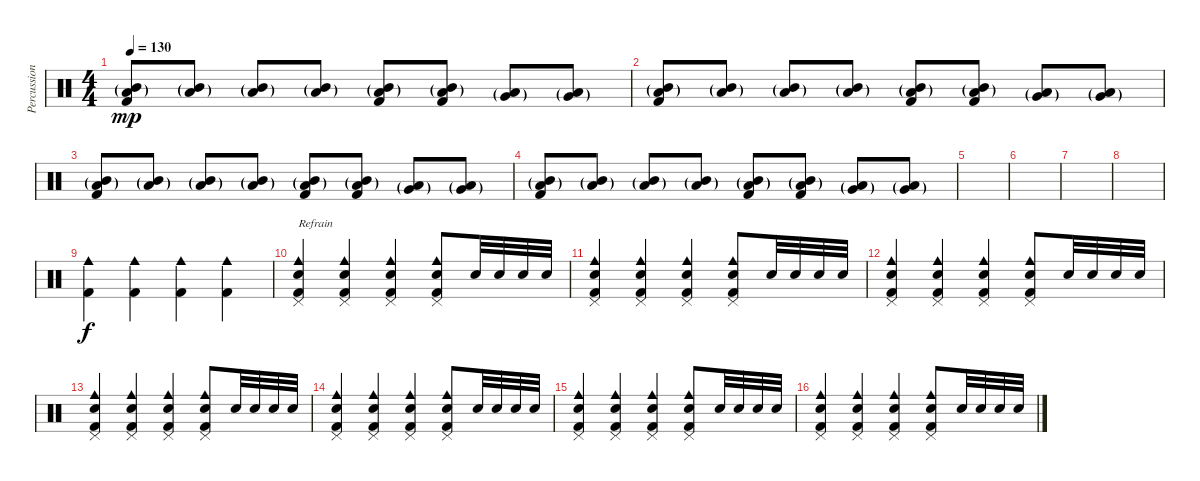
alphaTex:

\track ("Percussion" "Percussion") {instrument percussion}
\staff {score}
\articulation defaults
\ts (4 4)
\tempo 130
\clef neutral
\ks c
("Mid Tom (hit)"{g} "Low Tom (hit)"{g} "Kick (hit) 2").8{dy mp} ("Mid Tom (hit)"{g} "Low Tom (hit)"{g}).8 ("Mid Tom (hit)"{g} "Low Tom (hit)"{g}).8 ("Mid Tom (hit)"{g} "Low Tom (hit)"{g}).8 ("Mid Tom (hit)"{g} "Low Tom (hit)"{g} "Kick (hit) 2").8 ("Mid Tom (hit)"{g} "Low Tom (hit)"{g} "Kick (hit) 2").8 ("Very Low Tom (hit)"{g} "Low Tom (hit)"{g}).8 ("Very Low Tom (hit)"{g} "Low Tom (hit)"{g}).8 |
("Mid Tom (hit)"{g} "Low Tom (hit)"{g} "Kick (hit) 2").8 ("Mid Tom (hit)"{g} "Low Tom (hit)"{g}).8 ("Mid Tom (hit)"{g} "Low Tom (hit)"{g}).8 ("Mid Tom (hit)"{g} "Low Tom (hit)"{g}).8 ("Mid Tom (hit)"{g} "Low Tom (hit)"{g} "Kick (hit) 2").8 ("Mid Tom (hit)"{g} "Low Tom (hit)"{g} "Kick (hit) 2").8 ("Very Low Tom (hit)"{g} "Low Tom (hit)"{g}).8 ("Very Low Tom (hit)"{g} "Low Tom (hit)"{g}).8 |
("Mid Tom (hit)"{g} "Low Tom (hit)"{g} "Kick (hit) 2").8 ("Mid Tom (hit)"{g} "Low Tom (hit)"{g}).8 ("Mid Tom (hit)"{g} "Low Tom (hit)"{g}).8 ("Mid Tom (hit)"{g} "Low Tom (hit)"{g}).8 ("Mid Tom (hit)"{g} "Low Tom (hit)"{g} "Kick (hit) 2").8 ("Mid Tom (hit)"{g} "Low Tom (hit)"{g} "Kick (hit) 2").8 ("Very Low Tom (hit)"{g} "Low Tom (hit)"{g}).8 ("Very Low Tom (hit)"{g} "Low Tom (hit)"{g}).8 |
("Mid Tom (hit)"{g} "Low Tom (hit)"{g} "Kick (hit) 2").8 ("Mid Tom (hit)"{g} "Low Tom (hit)"{g}).8 ("Mid Tom (hit)"{g} "Low Tom (hit)"{g}).8 ("Mid Tom (hit)"{g} "Low Tom (hit)"{g}).8 ("Mid Tom (hit)"{g} "Low Tom (hit)"{g} "Kick (hit) 2").8 ("Mid Tom (hit)"{g} "Low Tom (hit)"{g} "Kick (hit) 2").8 ("Very Low Tom (hit)"{g} "Low Tom (hit)"{g}).8 ("Very Low Tom (hit)"{g} "Low Tom (hit)"{g}).8 |
|
|
|
|
("Cowbell medium (hit)" "Kick (hit) 2").4{dy f} ("Cowbell medium (hit)" "Kick (hit) 2").4 ("Cowbell medium (hit)" "Kick (hit) 2").4 ("Cowbell medium (hit)" "Kick (hit) 2").4 |
("Pedal Hi-Hat (hit)" "Cowbell medium (hit)" "Snare (hit) 2" "Kick (hit) 2").4{txt "Refrain"} ("Pedal Hi-Hat (hit)" "Cowbell medium (hit)" "Snare (hit) 2" "Kick (hit) 2").4 ("Pedal Hi-Hat (hit)" "Cowbell medium (hit)" "Snare (hit) 2" "Kick (hit) 2").4 ("Pedal Hi-Hat (hit)" "Cowbell medium (hit)" "Snare (hit) 2" "Kick (hit) 2").8 "Snare (hit) 2".32 "Snare (hit) 2".32 "Snare (hit) 2".32 "Snare (hit) 2".32 |
("Pedal Hi-Hat (hit)" "Cowbell medium (hit)" "Snare (hit) 2" "Kick (hit) 2").4 ("Pedal Hi-Hat (hit)" "Cowbell medium (hit)" "Snare (hit) 2" "Kick (hit) 2").4 ("Pedal Hi-Hat (hit)" "Cowbell medium (hit)" "Snare (hit) 2" "Kick (hit) 2").4 ("Pedal Hi-Hat (hit)" "Cowbell medium (hit)" "Snare (hit) 2" "Kick (hit) 2").8 "Snare (hit) 2".32 "Snare (hit) 2".32 "Snare (hit) 2".32 "Snare (hit) 2".32 |
("Pedal Hi-Hat (hit)" "Cowbell medium (hit)" "Snare (hit) 2" "Kick (hit) 2").4 ("Pedal Hi-Hat (hit)" "Cowbell medium (hit)" "Snare (hit) 2" "Kick (hit) 2").4 ("Pedal Hi-Hat (hit)" "Cowbell medium (hit)" "Snare (hit) 2" "Kick (hit) 2").4 ("Pedal Hi-Hat (hit)" "Cowbell medium (hit)" "Snare (hit) 2" "Kick (hit) 2").8 "Snare (hit) 2".32 "Snare (hit) 2".32 "Snare (hit) 2".32 "Snare (hit) 2".32 |
("Pedal Hi-Hat (hit)" "Cowbell medium (hit)" "Snare (hit) 2" "Kick (hit) 2").4 ("Pedal Hi-Hat (hit)" "Cowbell medium (hit)" "Snare (hit) 2" "Kick (hit) 2").4 ("Pedal Hi-Hat (hit)" "Cowbell medium (hit)" "Snare (hit) 2" "Kick (hit) 2").4 ("Pedal Hi-Hat (hit)" "Cowbell medium (hit)" "Snare (hit) 2" "Kick (hit) 2").8 "Snare (hit) 2".32 "Snare (hit) 2".32 "Snare (hit) 2".32 "Snare (hit) 2".32 |
("Pedal Hi-Hat (hit)" "Cowbell medium (hit)" "Snare (hit) 2" "Kick (hit) 2").4 ("Pedal Hi-Hat (hit)" "Cowbell medium (hit)" "Snare (hit) 2" "Kick (hit) 2").4 ("Pedal Hi-Hat (hit)" "Cowbell medium (hit)" "Snare (hit) 2" "Kick (hit) 2").4 ("Pedal Hi-Hat (hit)" "Cowbell medium (hit)" "Snare (hit) 2" "Kick (hit) 2").8 "Snare (hit) 2".32 "Snare (hit) 2".32 "Snare (hit) 2".32 "Snare (hit) 2".32 |
("Pedal Hi-Hat (hit)" "Cowbell medium (hit)" "Snare (hit) 2" "Kick (hit) 2").4 ("Pedal Hi-Hat (hit)" "Cowbell medium (hit)" "Snare (hit) 2" "Kick (hit) 2").4 ("Pedal Hi-Hat (hit)" "Cowbell medium (hit)" "Snare (hit) 2" "Kick (hit) 2").4 ("Pedal Hi-Hat (hit)" "Cowbell medium (hit)" "Snare (hit) 2" "Kick (hit) 2").8 "Snare (hit) 2".32 "Snare (hit) 2".32 "Snare (hit) 2".32 "Snare (hit) 2".32 |
("Pedal Hi-Hat (hit)" "Cowbell medium (hit)" "Snare (hit) 2" "Kick (hit) 2").4 ("Pedal Hi-Hat (hit)" "Cowbell medium (hit)" "Snare (hit) 2" "Kick (hit) 2").4 ("Pedal Hi-Hat (hit)" "Cowbell medium (hit)" "Snare (hit) 2" "Kick (hit) 2").4 ("Pedal Hi-Hat (hit)" "Cowbell medium (hit)" "Snare (hit) 2" "Kick (hit) 2").8 "Snare (hit) 2".32 "Snare (hit) 2".32 "Snare (hit) 2".32 "Snare (hit) 2".32
